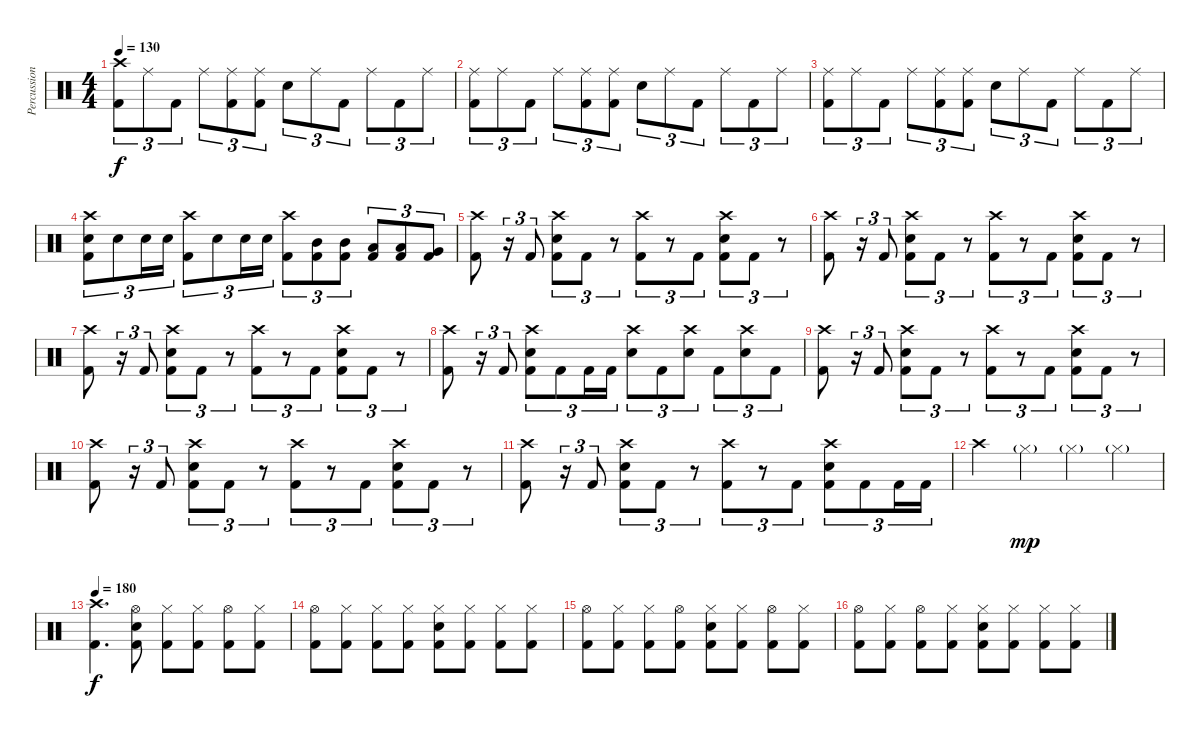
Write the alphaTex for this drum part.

\track ("Percussion" "Percussion") {instrument percussion}
\staff {score}
\articulation defaults
\ts (4 4)
\tempo 130
\clef neutral
\ks c
("Crash high (hit)" "Kick (hit) 2").8{tu (3 2) dy f} "Ride (middle)".8{tu (3 2)} "Kick (hit) 2".8{tu (3 2)} "Ride (middle)".8{tu (3 2)} ("Ride (middle)" "Kick (hit) 2").8{tu (3 2)} ("Ride (middle)" "Kick (hit) 2").8{tu (3 2)} "Electric Snare (hit)".8{tu (3 2)} "Ride (middle)".8{tu (3 2)} "Kick (hit) 2".8{tu (3 2)} "Ride (middle)".8{tu (3 2)} "Kick (hit) 2".8{tu (3 2)} "Ride (middle)".8{tu (3 2)} |
("Ride (middle)" "Kick (hit) 2").8{tu (3 2)} "Ride (middle)".8{tu (3 2)} "Kick (hit) 2".8{tu (3 2)} "Ride (middle)".8{tu (3 2)} ("Ride (middle)" "Kick (hit) 2").8{tu (3 2)} ("Ride (middle)" "Kick (hit) 2").8{tu (3 2)} "Electric Snare (hit)".8{tu (3 2)} "Ride (middle)".8{tu (3 2)} "Kick (hit) 2".8{tu (3 2)} "Ride (middle)".8{tu (3 2)} "Kick (hit) 2".8{tu (3 2)} "Ride (middle)".8{tu (3 2)} |
("Ride (middle)" "Kick (hit) 2").8{tu (3 2)} "Ride (middle)".8{tu (3 2)} "Kick (hit) 2".8{tu (3 2)} "Ride (middle)".8{tu (3 2)} ("Ride (middle)" "Kick (hit) 2").8{tu (3 2)} ("Ride (middle)" "Kick (hit) 2").8{tu (3 2)} "Electric Snare (hit)".8{tu (3 2)} "Ride (middle)".8{tu (3 2)} "Kick (hit) 2".8{tu (3 2)} "Ride (middle)".8{tu (3 2)} "Kick (hit) 2".8{tu (3 2)} "Ride (middle)".8{tu (3 2)} |
("Crash high (hit)" "Electric Snare (hit)" "Kick (hit) 2").8{tu (3 2)} "Electric Snare (hit)".8{tu (3 2)} "Electric Snare (hit)".16{tu (3 2)} "Electric Snare (hit)".16{tu (3 2)} ("Crash high (hit)" "Kick (hit) 2").8{tu (3 2)} "Electric Snare (hit)".8{tu (3 2)} "Electric Snare (hit)".16{tu (3 2)} "Electric Snare (hit)".16{tu (3 2)} ("Crash high (hit)" "Kick (hit) 2").8{tu (3 2)} ("Mid Tom (hit)" "Kick (hit) 2").8{tu (3 2)} ("Mid Tom (hit)" "Kick (hit) 2").8{tu (3 2)} ("Low Tom (hit)" "Kick (hit) 2").8{tu (3 2)} ("Low Tom (hit)" "Kick (hit) 2").8{tu (3 2)} ("Very Low Tom (hit)" "Kick (hit) 2").8{tu (3 2)} |
("Crash high (hit)" "Kick (hit) 2").8 r.16{tu (3 2)} "Kick (hit) 2".8{tu (3 2)} ("Crash high (hit)" "Electric Snare (hit)" "Kick (hit) 2").8{tu (3 2)} "Kick (hit) 2".8{tu (3 2)} r.8{tu (3 2)} ("Crash high (hit)" "Kick (hit) 2").8{tu (3 2)} r.8{tu (3 2)} "Kick (hit) 2".8{tu (3 2)} ("Crash high (hit)" "Electric Snare (hit)" "Kick (hit) 2").8{tu (3 2)} "Kick (hit) 2".8{tu (3 2)} r.8{tu (3 2)} |
("Crash high (hit)" "Kick (hit) 2").8 r.16{tu (3 2)} "Kick (hit) 2".8{tu (3 2)} ("Crash high (hit)" "Electric Snare (hit)" "Kick (hit) 2").8{tu (3 2)} "Kick (hit) 2".8{tu (3 2)} r.8{tu (3 2)} ("Crash high (hit)" "Kick (hit) 2").8{tu (3 2)} r.8{tu (3 2)} "Kick (hit) 2".8{tu (3 2)} ("Crash high (hit)" "Electric Snare (hit)" "Kick (hit) 2").8{tu (3 2)} "Kick (hit) 2".8{tu (3 2)} r.8{tu (3 2)} |
("Crash high (hit)" "Kick (hit) 2").8 r.16{tu (3 2)} "Kick (hit) 2".8{tu (3 2)} ("Crash high (hit)" "Electric Snare (hit)" "Kick (hit) 2").8{tu (3 2)} "Kick (hit) 2".8{tu (3 2)} r.8{tu (3 2)} ("Crash high (hit)" "Kick (hit) 2").8{tu (3 2)} r.8{tu (3 2)} "Kick (hit) 2".8{tu (3 2)} ("Crash high (hit)" "Electric Snare (hit)" "Kick (hit) 2").8{tu (3 2)} "Kick (hit) 2".8{tu (3 2)} r.8{tu (3 2)} |
("Crash high (hit)" "Kick (hit) 2").8 r.16{tu (3 2)} "Kick (hit) 2".8{tu (3 2)} ("Crash high (hit)" "Electric Snare (hit)" "Kick (hit) 2").8{tu (3 2)} "Kick (hit) 2".8{tu (3 2)} "Kick (hit) 2".16{tu (3 2)} "Kick (hit) 2".16{tu (3 2)} ("Crash high (hit)" "Electric Snare (hit)").8{tu (3 2)} "Kick (hit) 2".8{tu (3 2)} ("Crash high (hit)" "Electric Snare (hit)").8{tu (3 2)} "Kick (hit) 2".8{tu (3 2)} ("Crash high (hit)" "Electric Snare (hit)").8{tu (3 2)} "Kick (hit) 2".8{tu (3 2)} |
("Crash high (hit)" "Kick (hit) 2").8 r.16{tu (3 2)} "Kick (hit) 2".8{tu (3 2)} ("Crash high (hit)" "Electric Snare (hit)" "Kick (hit) 2").8{tu (3 2)} "Kick (hit) 2".8{tu (3 2)} r.8{tu (3 2)} ("Crash high (hit)" "Kick (hit) 2").8{tu (3 2)} r.8{tu (3 2)} "Kick (hit) 2".8{tu (3 2)} ("Crash high (hit)" "Electric Snare (hit)" "Kick (hit) 2").8{tu (3 2)} "Kick (hit) 2".8{tu (3 2)} r.8{tu (3 2)} |
("Crash high (hit)" "Kick (hit) 2").8 r.16{tu (3 2)} "Kick (hit) 2".8{tu (3 2)} ("Crash high (hit)" "Electric Snare (hit)" "Kick (hit) 2").8{tu (3 2)} "Kick (hit) 2".8{tu (3 2)} r.8{tu (3 2)} ("Crash high (hit)" "Kick (hit) 2").8{tu (3 2)} r.8{tu (3 2)} "Kick (hit) 2".8{tu (3 2)} ("Crash high (hit)" "Electric Snare (hit)" "Kick (hit) 2").8{tu (3 2)} "Kick (hit) 2".8{tu (3 2)} r.8{tu (3 2)} |
("Crash high (hit)" "Kick (hit) 2").8 r.16{tu (3 2)} "Kick (hit) 2".8{tu (3 2)} ("Crash high (hit)" "Electric Snare (hit)" "Kick (hit) 2").8{tu (3 2)} "Kick (hit) 2".8{tu (3 2)} r.8{tu (3 2)} ("Crash high (hit)" "Kick (hit) 2").8{tu (3 2)} r.8{tu (3 2)} "Kick (hit) 2".8{tu (3 2)} ("Crash high (hit)" "Electric Snare (hit)" "Kick (hit) 2").8{tu (3 2)} "Kick (hit) 2".8{tu (3 2)} "Kick (hit) 2".16{tu (3 2)} "Kick (hit) 2".16{tu (3 2)} |
"Crash high (hit)".4 "Hi-Hat (closed)"{g}.4{dy mp} "Hi-Hat (closed)"{g}.4 "Hi-Hat (closed)"{g}.4 |
\tempo 180
("Crash high (hit)" "Kick (hit) 2").4{d dy f} ("Hi-Hat (open)" "Electric Snare (hit)" "Kick (hit) 2").8 ("Hi-Hat (closed)" "Kick (hit) 2").8 ("Hi-Hat (closed)" "Kick (hit) 2").8 ("Hi-Hat (open)" "Kick (hit) 2").8 ("Hi-Hat (closed)" "Kick (hit) 2").8 |
("Hi-Hat (open)" "Kick (hit) 2").8 ("Hi-Hat (closed)" "Kick (hit) 2").8 ("Hi-Hat (closed)" "Kick (hit) 2").8 ("Hi-Hat (closed)" "Kick (hit) 2").8 ("Hi-Hat (closed)" "Electric Snare (hit)" "Kick (hit) 2").8 ("Hi-Hat (closed)" "Kick (hit) 2").8 ("Hi-Hat (closed)" "Kick (hit) 2").8 ("Hi-Hat (closed)" "Kick (hit) 2").8 |
("Hi-Hat (open)" "Kick (hit) 2").8 ("Hi-Hat (closed)" "Kick (hit) 2").8 ("Hi-Hat (closed)" "Kick (hit) 2").8 ("Hi-Hat (open)" "Kick (hit) 2").8 ("Hi-Hat (closed)" "Electric Snare (hit)" "Kick (hit) 2").8 ("Hi-Hat (closed)" "Kick (hit) 2").8 ("Hi-Hat (open)" "Kick (hit) 2").8 ("Hi-Hat (closed)" "Kick (hit) 2").8 |
("Hi-Hat (open)" "Kick (hit) 2").8 ("Hi-Hat (closed)" "Kick (hit) 2").8 ("Hi-Hat (open)" "Kick (hit) 2").8 ("Hi-Hat (closed)" "Kick (hit) 2").8 ("Hi-Hat (closed)" "Electric Snare (hit)" "Kick (hit) 2").8 ("Hi-Hat (closed)" "Kick (hit) 2").8 ("Hi-Hat (closed)" "Kick (hit) 2").8 ("Hi-Hat (closed)" "Kick (hit) 2").8
